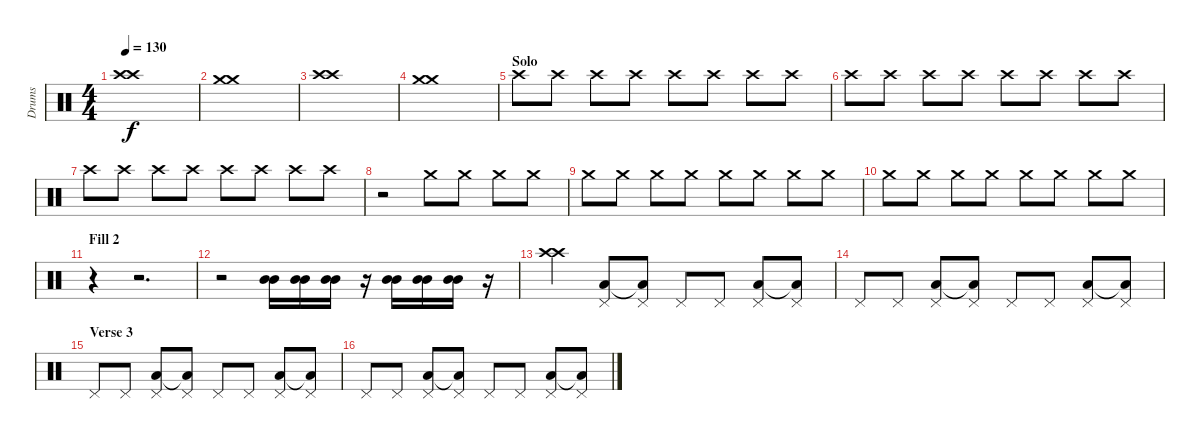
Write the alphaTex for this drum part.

\track ("Drums" "Drums") {instrument percussion}
\staff {score}
\articulation defaults
\ts (4 4)
\tempo 130
\clef neutral
\ks c
("Crash high (hit)" "Crash high (hit)").1{dy f} |
("Crash medium (hit)" "Crash medium (hit)").1 |
("Crash high (hit)" "Crash high (hit)").1 |
("Crash medium (hit)" "Crash medium (hit)").1 |
\section ("" "Solo")
"Crash high (hit)".8 "Crash high (hit)".8 "Crash high (hit)".8 "Crash high (hit)".8 "Crash high (hit)".8 "Crash high (hit)".8 "Crash high (hit)".8 "Crash high (hit)".8 |
"Crash high (hit)".8 "Crash high (hit)".8 "Crash high (hit)".8 "Crash high (hit)".8 "Crash high (hit)".8 "Crash high (hit)".8 "Crash high (hit)".8 "Crash high (hit)".8 |
"Crash high (hit)".8 "Crash high (hit)".8 "Crash high (hit)".8 "Crash high (hit)".8 "Crash high (hit)".8 "Crash high (hit)".8 "Crash high (hit)".8 "Crash high (hit)".8 |
r.2 "Crash medium (hit)".8 "Crash medium (hit)".8 "Crash medium (hit)".8 "Crash medium (hit)".8 |
"Crash medium (hit)".8 "Crash medium (hit)".8 "Crash medium (hit)".8 "Crash medium (hit)".8 "Crash medium (hit)".8 "Crash medium (hit)".8 "Crash medium (hit)".8 "Crash medium (hit)".8 |
"Crash medium (hit)".8 "Crash medium (hit)".8 "Crash medium (hit)".8 "Crash medium (hit)".8 "Crash medium (hit)".8 "Crash medium (hit)".8 "Crash medium (hit)".8 "Crash medium (hit)".8 |
\section ("" "Fill 2")
r.4 r.2{d} |
r.2 ("Mid Tom (hit)" "Mid Tom (hit)").16 ("Mid Tom (hit)" "Mid Tom (hit)").16 ("Mid Tom (hit)" "Mid Tom (hit)").16 r.16 ("Mid Tom (hit)" "Mid Tom (hit)").16 ("Mid Tom (hit)" "Mid Tom (hit)").16 ("Mid Tom (hit)" "Mid Tom (hit)").16 r.16 |
("Crash high (hit)" "Crash high (hit)").4 ("Pedal Hi-Hat (hit)" "Low Floor Tom (hit)").8 ("Pedal Hi-Hat (hit)" "Low Floor Tom (hit)"{t}).8 "Pedal Hi-Hat (hit)".8 "Pedal Hi-Hat (hit)".8 ("Pedal Hi-Hat (hit)" "Low Floor Tom (hit)").8 ("Pedal Hi-Hat (hit)" "Low Floor Tom (hit)"{t}).8 |
"Pedal Hi-Hat (hit)".8 "Pedal Hi-Hat (hit)".8 ("Pedal Hi-Hat (hit)" "Low Floor Tom (hit)").8 ("Pedal Hi-Hat (hit)" "Low Floor Tom (hit)"{t}).8 "Pedal Hi-Hat (hit)".8 "Pedal Hi-Hat (hit)".8 ("Pedal Hi-Hat (hit)" "Low Floor Tom (hit)").8 ("Pedal Hi-Hat (hit)" "Low Floor Tom (hit)"{t}).8 |
\section ("" "Verse 3")
"Pedal Hi-Hat (hit)".8 "Pedal Hi-Hat (hit)".8 ("Pedal Hi-Hat (hit)" "Low Floor Tom (hit)").8 ("Pedal Hi-Hat (hit)" "Low Floor Tom (hit)"{t}).8 "Pedal Hi-Hat (hit)".8 "Pedal Hi-Hat (hit)".8 ("Pedal Hi-Hat (hit)" "Low Floor Tom (hit)").8 ("Pedal Hi-Hat (hit)" "Low Floor Tom (hit)"{t}).8 |
"Pedal Hi-Hat (hit)".8 "Pedal Hi-Hat (hit)".8 ("Pedal Hi-Hat (hit)" "Low Floor Tom (hit)").8 ("Pedal Hi-Hat (hit)" "Low Floor Tom (hit)"{t}).8 "Pedal Hi-Hat (hit)".8 "Pedal Hi-Hat (hit)".8 ("Pedal Hi-Hat (hit)" "Low Floor Tom (hit)").8 ("Pedal Hi-Hat (hit)" "Low Floor Tom (hit)"{t}).8
